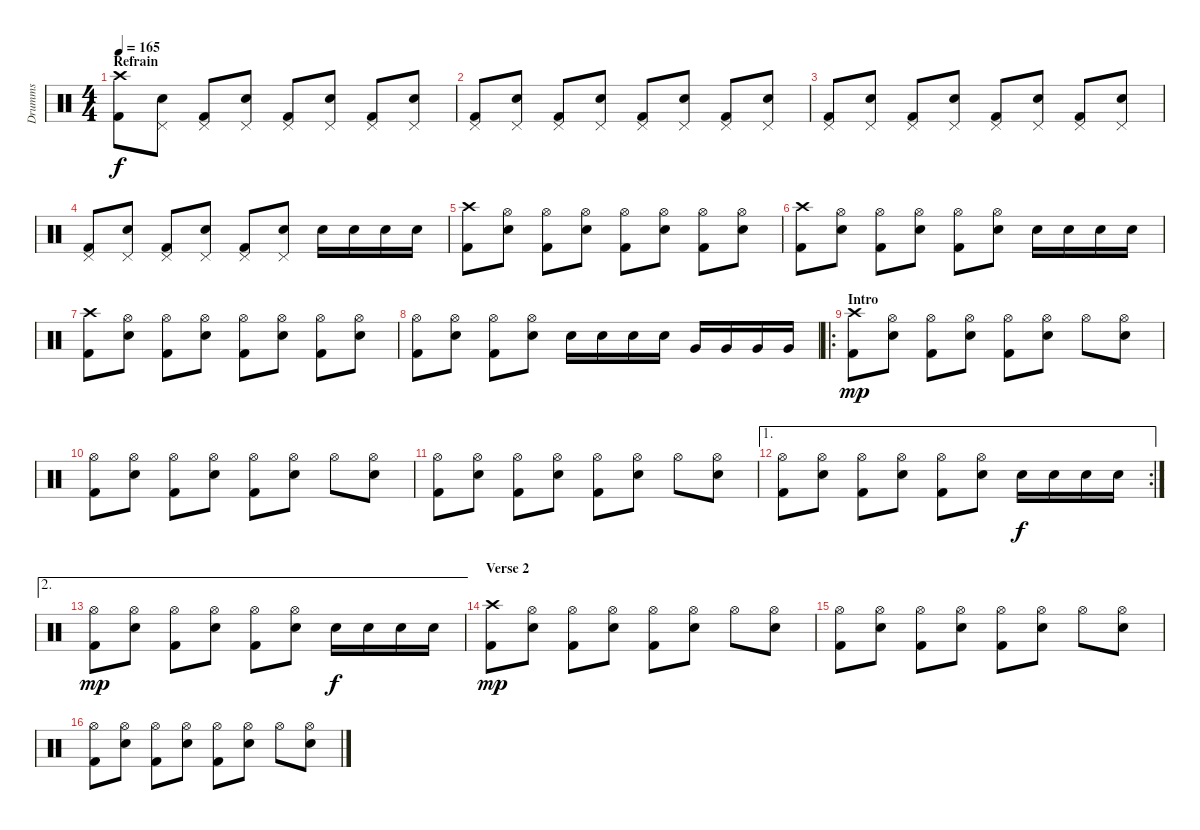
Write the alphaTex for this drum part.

\track ("Drumms" "Drumms") {instrument percussion}
\staff {score}
\articulation defaults
\ts (4 4)
\section ("" "Refrain")
\tempo 165
\clef neutral
\ks c
("Crash high (hit)" "Kick (hit) 2").8{dy f} ("Pedal Hi-Hat (hit)" "Electric Snare (hit)").8 ("Pedal Hi-Hat (hit)" "Kick (hit) 2").8 ("Pedal Hi-Hat (hit)" "Electric Snare (hit)").8 ("Pedal Hi-Hat (hit)" "Kick (hit) 2").8 ("Pedal Hi-Hat (hit)" "Electric Snare (hit)").8 ("Pedal Hi-Hat (hit)" "Kick (hit) 2").8 ("Pedal Hi-Hat (hit)" "Electric Snare (hit)").8 |
("Pedal Hi-Hat (hit)" "Kick (hit) 2").8 ("Pedal Hi-Hat (hit)" "Electric Snare (hit)").8 ("Pedal Hi-Hat (hit)" "Kick (hit) 2").8 ("Pedal Hi-Hat (hit)" "Electric Snare (hit)").8 ("Pedal Hi-Hat (hit)" "Kick (hit) 2").8 ("Pedal Hi-Hat (hit)" "Electric Snare (hit)").8 ("Pedal Hi-Hat (hit)" "Kick (hit) 2").8 ("Pedal Hi-Hat (hit)" "Electric Snare (hit)").8 |
("Pedal Hi-Hat (hit)" "Kick (hit) 2").8 ("Pedal Hi-Hat (hit)" "Electric Snare (hit)").8 ("Pedal Hi-Hat (hit)" "Kick (hit) 2").8 ("Pedal Hi-Hat (hit)" "Electric Snare (hit)").8 ("Pedal Hi-Hat (hit)" "Kick (hit) 2").8 ("Pedal Hi-Hat (hit)" "Electric Snare (hit)").8 ("Pedal Hi-Hat (hit)" "Kick (hit) 2").8 ("Pedal Hi-Hat (hit)" "Electric Snare (hit)").8 |
("Pedal Hi-Hat (hit)" "Kick (hit) 2").8 ("Pedal Hi-Hat (hit)" "Electric Snare (hit)").8 ("Pedal Hi-Hat (hit)" "Kick (hit) 2").8 ("Pedal Hi-Hat (hit)" "Electric Snare (hit)").8 ("Pedal Hi-Hat (hit)" "Kick (hit) 2").8 ("Pedal Hi-Hat (hit)" "Electric Snare (hit)").8 "Electric Snare (hit)".16 "Electric Snare (hit)".16 "Electric Snare (hit)".16 "Electric Snare (hit)".16 |
("Crash high (hit)" "Kick (hit) 2").8 ("Hi-Hat (open)" "Electric Snare (hit)").8 ("Hi-Hat (open)" "Kick (hit) 2").8 ("Hi-Hat (open)" "Electric Snare (hit)").8 ("Hi-Hat (open)" "Kick (hit) 2").8 ("Hi-Hat (open)" "Electric Snare (hit)").8 ("Hi-Hat (open)" "Kick (hit) 2").8 ("Hi-Hat (open)" "Electric Snare (hit)").8 |
("Crash high (hit)" "Kick (hit) 2").8 ("Hi-Hat (open)" "Electric Snare (hit)").8 ("Hi-Hat (open)" "Kick (hit) 2").8 ("Hi-Hat (open)" "Electric Snare (hit)").8 ("Hi-Hat (open)" "Kick (hit) 2").8 ("Hi-Hat (open)" "Electric Snare (hit)").8 "Electric Snare (hit)".16 "Electric Snare (hit)".16 "Electric Snare (hit)".16 "Electric Snare (hit)".16 |
("Crash high (hit)" "Kick (hit) 2").8 ("Hi-Hat (open)" "Electric Snare (hit)").8 ("Hi-Hat (open)" "Kick (hit) 2").8 ("Hi-Hat (open)" "Electric Snare (hit)").8 ("Hi-Hat (open)" "Kick (hit) 2").8 ("Hi-Hat (open)" "Electric Snare (hit)").8 ("Hi-Hat (open)" "Kick (hit) 2").8 ("Hi-Hat (open)" "Electric Snare (hit)").8 |
("Hi-Hat (open)" "Kick (hit) 2").8 ("Hi-Hat (open)" "Electric Snare (hit)").8 ("Hi-Hat (open)" "Kick (hit) 2").8 ("Hi-Hat (open)" "Electric Snare (hit)").8 "Electric Snare (hit)".16 "Electric Snare (hit)".16 "Electric Snare (hit)".16 "Electric Snare (hit)".16 "Very Low Tom (hit)".16 "Very Low Tom (hit)".16 "Very Low Tom (hit)".16 "Very Low Tom (hit)".16 |
\ro
\section ("" "Intro")
("Crash high (hit)" "Kick (hit) 2").8{dy mp} ("Hi-Hat (open)" "Electric Snare (hit)").8 ("Hi-Hat (open)" "Kick (hit) 2").8 ("Hi-Hat (open)" "Electric Snare (hit)").8 ("Hi-Hat (open)" "Kick (hit) 2").8 ("Hi-Hat (open)" "Electric Snare (hit)").8 "Hi-Hat (open)".8 ("Hi-Hat (open)" "Electric Snare (hit)").8 |
("Hi-Hat (open)" "Kick (hit) 2").8 ("Hi-Hat (open)" "Electric Snare (hit)").8 ("Hi-Hat (open)" "Kick (hit) 2").8 ("Hi-Hat (open)" "Electric Snare (hit)").8 ("Hi-Hat (open)" "Kick (hit) 2").8 ("Hi-Hat (open)" "Electric Snare (hit)").8 "Hi-Hat (open)".8 ("Hi-Hat (open)" "Electric Snare (hit)").8 |
("Hi-Hat (open)" "Kick (hit) 2").8 ("Hi-Hat (open)" "Electric Snare (hit)").8 ("Hi-Hat (open)" "Kick (hit) 2").8 ("Hi-Hat (open)" "Electric Snare (hit)").8 ("Hi-Hat (open)" "Kick (hit) 2").8 ("Hi-Hat (open)" "Electric Snare (hit)").8 "Hi-Hat (open)".8 ("Hi-Hat (open)" "Electric Snare (hit)").8 |
\ae 1
\rc 2
("Hi-Hat (open)" "Kick (hit) 2").8 ("Hi-Hat (open)" "Electric Snare (hit)").8 ("Hi-Hat (open)" "Kick (hit) 2").8 ("Hi-Hat (open)" "Electric Snare (hit)").8 ("Hi-Hat (open)" "Kick (hit) 2").8 ("Hi-Hat (open)" "Electric Snare (hit)").8 "Electric Snare (hit)".16{dy f} "Electric Snare (hit)".16 "Electric Snare (hit)".16 "Electric Snare (hit)".16 |
\ae 2
("Hi-Hat (open)" "Kick (hit) 2").8{dy mp} ("Hi-Hat (open)" "Electric Snare (hit)").8 ("Hi-Hat (open)" "Kick (hit) 2").8 ("Hi-Hat (open)" "Electric Snare (hit)").8 ("Hi-Hat (open)" "Kick (hit) 2").8 ("Hi-Hat (open)" "Electric Snare (hit)").8 "Electric Snare (hit)".16{dy f} "Electric Snare (hit)".16 "Electric Snare (hit)".16 "Electric Snare (hit)".16 |
\section ("" "Verse 2")
("Crash high (hit)" "Kick (hit) 2").8{dy mp} ("Hi-Hat (open)" "Electric Snare (hit)").8 ("Hi-Hat (open)" "Kick (hit) 2").8 ("Hi-Hat (open)" "Electric Snare (hit)").8 ("Hi-Hat (open)" "Kick (hit) 2").8 ("Hi-Hat (open)" "Electric Snare (hit)").8 "Hi-Hat (open)".8 ("Hi-Hat (open)" "Electric Snare (hit)").8 |
("Hi-Hat (open)" "Kick (hit) 2").8 ("Hi-Hat (open)" "Electric Snare (hit)").8 ("Hi-Hat (open)" "Kick (hit) 2").8 ("Hi-Hat (open)" "Electric Snare (hit)").8 ("Hi-Hat (open)" "Kick (hit) 2").8 ("Hi-Hat (open)" "Electric Snare (hit)").8 "Hi-Hat (open)".8 ("Hi-Hat (open)" "Electric Snare (hit)").8 |
("Hi-Hat (open)" "Kick (hit) 2").8 ("Hi-Hat (open)" "Electric Snare (hit)").8 ("Hi-Hat (open)" "Kick (hit) 2").8 ("Hi-Hat (open)" "Electric Snare (hit)").8 ("Hi-Hat (open)" "Kick (hit) 2").8 ("Hi-Hat (open)" "Electric Snare (hit)").8 "Hi-Hat (open)".8 ("Hi-Hat (open)" "Electric Snare (hit)").8
